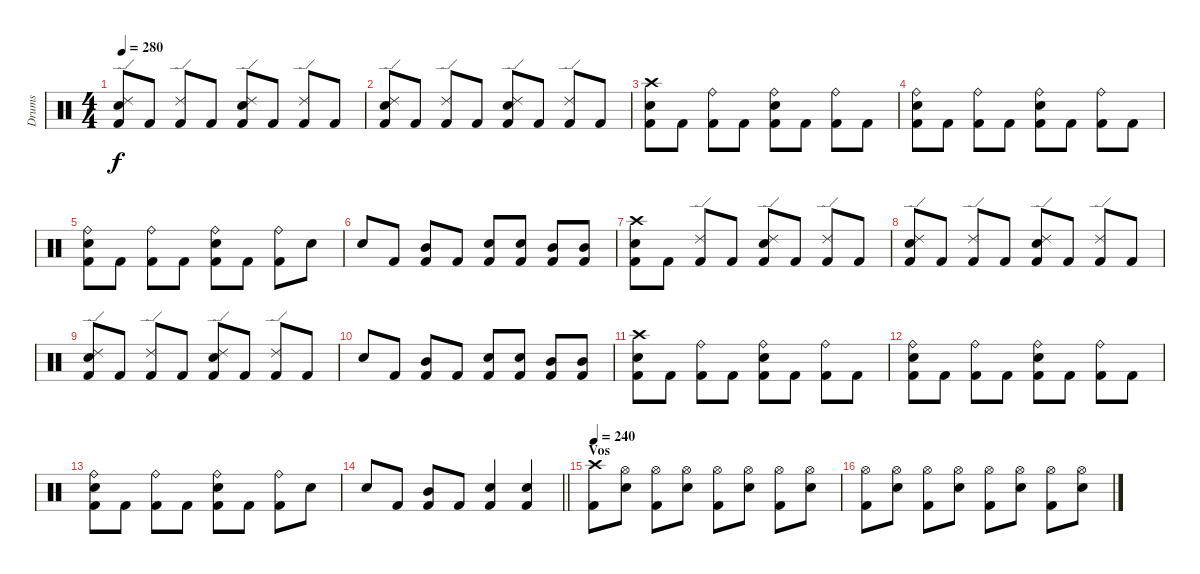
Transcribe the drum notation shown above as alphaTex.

\track ("Drums" "Drums") {instrument percussion}
\staff {score}
\articulation defaults
\ts (4 4)
\tempo 280
\clef neutral
\ks c
("Ride (edge) 2" "Snare (hit) 2" "Kick (hit) 2").8{dy f} "Kick (hit) 2".8 ("Ride (edge) 2" "Kick (hit) 2").8 "Kick (hit) 2".8 ("Ride (edge) 2" "Snare (hit) 2" "Kick (hit) 2").8 "Kick (hit) 2".8 ("Ride (edge) 2" "Kick (hit) 2").8 "Kick (hit) 2".8 |
("Ride (edge) 2" "Snare (hit) 2" "Kick (hit) 2").8 "Kick (hit) 2".8 ("Ride (edge) 2" "Kick (hit) 2").8 "Kick (hit) 2".8 ("Ride (edge) 2" "Snare (hit) 2" "Kick (hit) 2").8 "Kick (hit) 2".8 ("Ride (edge) 2" "Kick (hit) 2").8 "Kick (hit) 2".8 |
("Crash high (hit)" "Snare (hit) 2" "Kick (hit) 2").8 "Kick (hit) 2".8 ("Ride (bell)" "Kick (hit) 2").8 "Kick (hit) 2".8 ("Ride (bell)" "Snare (hit) 2" "Kick (hit) 2").8 "Kick (hit) 2".8 ("Ride (bell)" "Kick (hit) 2").8 "Kick (hit) 2".8 |
("Ride (bell)" "Snare (hit) 2" "Kick (hit) 2").8 "Kick (hit) 2".8 ("Ride (bell)" "Kick (hit) 2").8 "Kick (hit) 2".8 ("Ride (bell)" "Snare (hit) 2" "Kick (hit) 2").8 "Kick (hit) 2".8 ("Ride (bell)" "Kick (hit) 2").8 "Kick (hit) 2".8 |
("Ride (bell)" "Snare (hit) 2" "Kick (hit) 2").8 "Kick (hit) 2".8 ("Ride (bell)" "Kick (hit) 2").8 "Kick (hit) 2".8 ("Ride (bell)" "Snare (hit) 2" "Kick (hit) 2").8 "Kick (hit) 2".8 ("Ride (bell)" "Kick (hit) 2").8 "Snare (hit) 2".8 |
"Snare (hit) 2".8 "Kick (hit) 2".8 ("Kick (hit) 2" "Mid Tom (hit)").8 "Kick (hit) 2".8 ("Snare (hit) 2" "Kick (hit) 2").8 ("Snare (hit) 2" "Kick (hit) 2").8 ("Kick (hit) 2" "Mid Tom (hit)").8 ("Kick (hit) 2" "Mid Tom (hit)").8 |
("Crash high (hit)" "Snare (hit) 2" "Kick (hit) 2").8 "Kick (hit) 2".8 ("Ride (edge) 2" "Kick (hit) 2").8 "Kick (hit) 2".8 ("Ride (edge) 2" "Snare (hit) 2" "Kick (hit) 2").8 "Kick (hit) 2".8 ("Ride (edge) 2" "Kick (hit) 2").8 "Kick (hit) 2".8 |
("Ride (edge) 2" "Snare (hit) 2" "Kick (hit) 2").8 "Kick (hit) 2".8 ("Ride (edge) 2" "Kick (hit) 2").8 "Kick (hit) 2".8 ("Ride (edge) 2" "Snare (hit) 2" "Kick (hit) 2").8 "Kick (hit) 2".8 ("Ride (edge) 2" "Kick (hit) 2").8 "Kick (hit) 2".8 |
("Ride (edge) 2" "Snare (hit) 2" "Kick (hit) 2").8 "Kick (hit) 2".8 ("Ride (edge) 2" "Kick (hit) 2").8 "Kick (hit) 2".8 ("Ride (edge) 2" "Snare (hit) 2" "Kick (hit) 2").8 "Kick (hit) 2".8 ("Ride (edge) 2" "Kick (hit) 2").8 "Kick (hit) 2".8 |
"Snare (hit) 2".8 "Kick (hit) 2".8 ("Kick (hit) 2" "Mid Tom (hit)").8 "Kick (hit) 2".8 ("Snare (hit) 2" "Kick (hit) 2").8 ("Snare (hit) 2" "Kick (hit) 2").8 ("Kick (hit) 2" "Mid Tom (hit)").8 ("Kick (hit) 2" "Mid Tom (hit)").8 |
("Crash high (hit)" "Snare (hit) 2" "Kick (hit) 2").8 "Kick (hit) 2".8 ("Ride (bell)" "Kick (hit) 2").8 "Kick (hit) 2".8 ("Ride (bell)" "Snare (hit) 2" "Kick (hit) 2").8 "Kick (hit) 2".8 ("Ride (bell)" "Kick (hit) 2").8 "Kick (hit) 2".8 |
("Ride (bell)" "Snare (hit) 2" "Kick (hit) 2").8 "Kick (hit) 2".8 ("Ride (bell)" "Kick (hit) 2").8 "Kick (hit) 2".8 ("Ride (bell)" "Snare (hit) 2" "Kick (hit) 2").8 "Kick (hit) 2".8 ("Ride (bell)" "Kick (hit) 2").8 "Kick (hit) 2".8 |
("Ride (bell)" "Snare (hit) 2" "Kick (hit) 2").8 "Kick (hit) 2".8 ("Ride (bell)" "Kick (hit) 2").8 "Kick (hit) 2".8 ("Ride (bell)" "Snare (hit) 2" "Kick (hit) 2").8 "Kick (hit) 2".8 ("Ride (bell)" "Kick (hit) 2").8 "Snare (hit) 2".8 |
\barLineRight lightlight "Snare (hit) 2".8 "Kick (hit) 2".8
("Kick (hit) 2" "Mid Tom (hit)").8 "Kick (hit) 2".8 ("Snare (hit) 2" "Kick (hit) 2").4 ("Snare (hit) 2" "Kick (hit) 2").4 |
\section ("" "Vos")
\tempo 240
("Crash high (hit)" "Kick (hit) 2").8 ("Hi-Hat (open)" "Snare (hit) 2").8 ("Hi-Hat (open)" "Kick (hit) 2").8 ("Hi-Hat (open)" "Snare (hit) 2").8 ("Hi-Hat (open)" "Kick (hit) 2").8 ("Hi-Hat (open)" "Snare (hit) 2").8 ("Hi-Hat (open)" "Kick (hit) 2").8 ("Hi-Hat (open)" "Snare (hit) 2").8 |
("Hi-Hat (open)" "Kick (hit) 2").8 ("Hi-Hat (open)" "Snare (hit) 2").8 ("Hi-Hat (open)" "Kick (hit) 2").8 ("Hi-Hat (open)" "Snare (hit) 2").8 ("Hi-Hat (open)" "Kick (hit) 2").8 ("Hi-Hat (open)" "Snare (hit) 2").8 ("Hi-Hat (open)" "Kick (hit) 2").8 ("Hi-Hat (open)" "Snare (hit) 2").8
